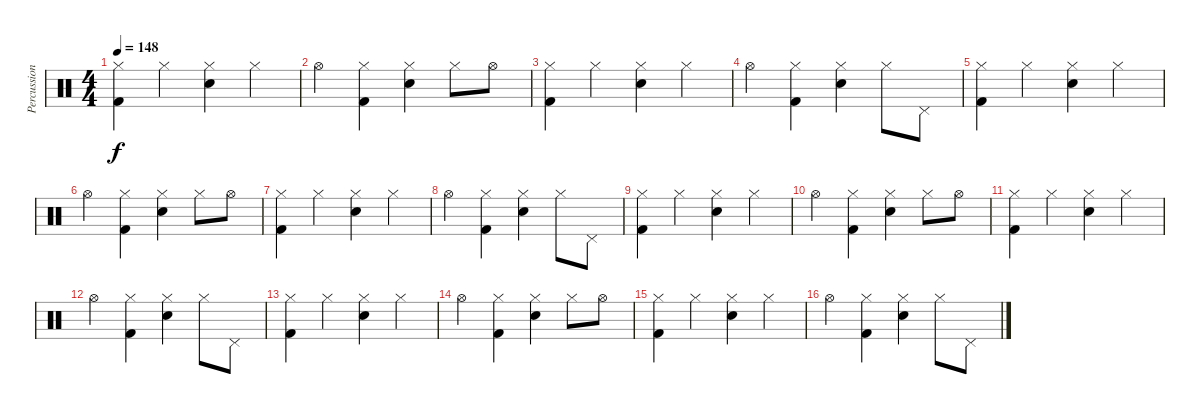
\track ("Percussions" "Percussion") {instrument percussion}
\staff {score}
\articulation defaults
\ts (4 4)
\tempo 148
\clef neutral
\ks c
("Hi-Hat (closed)" "Kick (hit) 2").4{dy f} "Hi-Hat (closed)".4 ("Hi-Hat (closed)" "Snare (hit) 2").4 "Hi-Hat (closed)".4 |
"Hi-Hat (open)".4 ("Hi-Hat (closed)" "Kick (hit) 2").4 ("Hi-Hat (closed)" "Snare (hit) 2").4 "Hi-Hat (closed)".8 "Hi-Hat (open)".8 |
("Hi-Hat (closed)" "Kick (hit) 2").4 "Hi-Hat (closed)".4 ("Hi-Hat (closed)" "Snare (hit) 2").4 "Hi-Hat (closed)".4 |
"Hi-Hat (open)".4 ("Hi-Hat (closed)" "Kick (hit) 2").4 ("Hi-Hat (closed)" "Snare (hit) 2").4 "Hi-Hat (closed)".8 "Pedal Hi-Hat (hit)".8 |
("Hi-Hat (closed)" "Kick (hit) 2").4 "Hi-Hat (closed)".4 ("Hi-Hat (closed)" "Snare (hit) 2").4 "Hi-Hat (closed)".4 |
"Hi-Hat (open)".4 ("Hi-Hat (closed)" "Kick (hit) 2").4 ("Hi-Hat (closed)" "Snare (hit) 2").4 "Hi-Hat (closed)".8 "Hi-Hat (open)".8 |
("Hi-Hat (closed)" "Kick (hit) 2").4 "Hi-Hat (closed)".4 ("Hi-Hat (closed)" "Snare (hit) 2").4 "Hi-Hat (closed)".4 |
"Hi-Hat (open)".4 ("Hi-Hat (closed)" "Kick (hit) 2").4 ("Hi-Hat (closed)" "Snare (hit) 2").4 "Hi-Hat (closed)".8 "Pedal Hi-Hat (hit)".8 |
("Hi-Hat (closed)" "Kick (hit) 2").4 "Hi-Hat (closed)".4 ("Hi-Hat (closed)" "Snare (hit) 2").4 "Hi-Hat (closed)".4 |
"Hi-Hat (open)".4 ("Hi-Hat (closed)" "Kick (hit) 2").4 ("Hi-Hat (closed)" "Snare (hit) 2").4 "Hi-Hat (closed)".8 "Hi-Hat (open)".8 |
("Hi-Hat (closed)" "Kick (hit) 2").4 "Hi-Hat (closed)".4 ("Hi-Hat (closed)" "Snare (hit) 2").4 "Hi-Hat (closed)".4 |
"Hi-Hat (open)".4 ("Hi-Hat (closed)" "Kick (hit) 2").4 ("Hi-Hat (closed)" "Snare (hit) 2").4 "Hi-Hat (closed)".8 "Pedal Hi-Hat (hit)".8 |
("Hi-Hat (closed)" "Kick (hit) 2").4 "Hi-Hat (closed)".4 ("Hi-Hat (closed)" "Snare (hit) 2").4 "Hi-Hat (closed)".4 |
"Hi-Hat (open)".4 ("Hi-Hat (closed)" "Kick (hit) 2").4 ("Hi-Hat (closed)" "Snare (hit) 2").4 "Hi-Hat (closed)".8 "Hi-Hat (open)".8 |
("Hi-Hat (closed)" "Kick (hit) 2").4 "Hi-Hat (closed)".4 ("Hi-Hat (closed)" "Snare (hit) 2").4 "Hi-Hat (closed)".4 |
"Hi-Hat (open)".4 ("Hi-Hat (closed)" "Kick (hit) 2").4 ("Hi-Hat (closed)" "Snare (hit) 2").4 "Hi-Hat (closed)".8 "Pedal Hi-Hat (hit)".8
